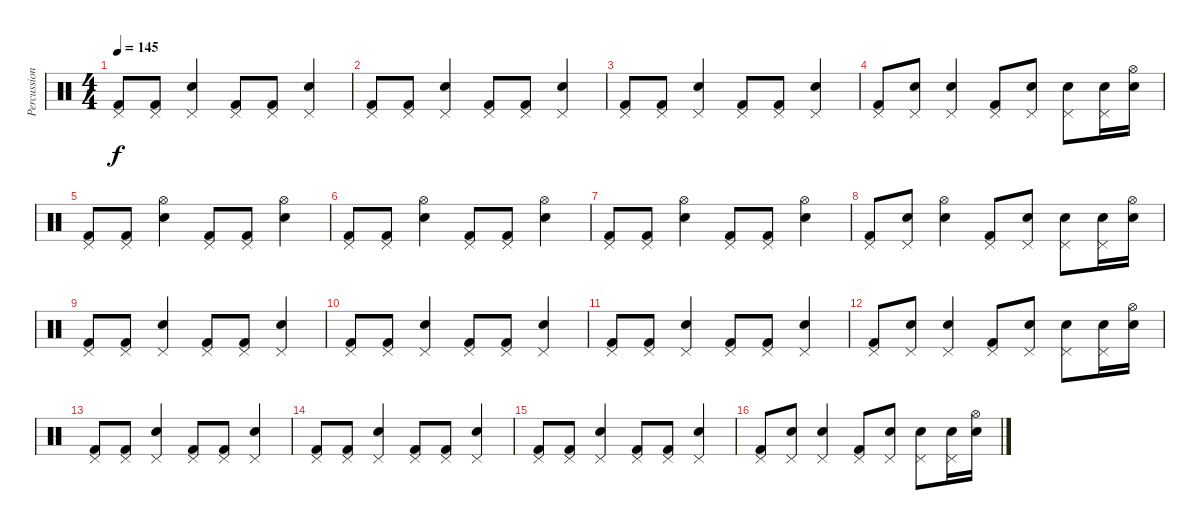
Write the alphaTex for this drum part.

\track ("Percussion" "Percussion") {instrument percussion}
\staff {score}
\articulation defaults
\ts (4 4)
\tempo 145
\clef neutral
\ks c
("Pedal Hi-Hat (hit)" "Kick (hit) 2").8{dy f} ("Pedal Hi-Hat (hit)" "Kick (hit) 2").8 ("Pedal Hi-Hat (hit)" "Snare (hit) 2").4 ("Pedal Hi-Hat (hit)" "Kick (hit) 2").8 ("Pedal Hi-Hat (hit)" "Kick (hit) 2").8 ("Pedal Hi-Hat (hit)" "Snare (hit) 2").4 |
("Pedal Hi-Hat (hit)" "Kick (hit) 2").8 ("Pedal Hi-Hat (hit)" "Kick (hit) 2").8 ("Pedal Hi-Hat (hit)" "Snare (hit) 2").4 ("Pedal Hi-Hat (hit)" "Kick (hit) 2").8 ("Pedal Hi-Hat (hit)" "Kick (hit) 2").8 ("Pedal Hi-Hat (hit)" "Snare (hit) 2").4 |
("Pedal Hi-Hat (hit)" "Kick (hit) 2").8 ("Pedal Hi-Hat (hit)" "Kick (hit) 2").8 ("Pedal Hi-Hat (hit)" "Snare (hit) 2").4 ("Pedal Hi-Hat (hit)" "Kick (hit) 2").8 ("Pedal Hi-Hat (hit)" "Kick (hit) 2").8 ("Pedal Hi-Hat (hit)" "Snare (hit) 2").4 |
("Pedal Hi-Hat (hit)" "Kick (hit) 2").8 ("Pedal Hi-Hat (hit)" "Snare (hit) 2").8 ("Pedal Hi-Hat (hit)" "Snare (hit) 2").4 ("Pedal Hi-Hat (hit)" "Kick (hit) 2").8 ("Pedal Hi-Hat (hit)" "Snare (hit) 2").8 ("Pedal Hi-Hat (hit)" "Snare (hit) 2").8 ("Pedal Hi-Hat (hit)" "Snare (hit) 2").16 ("Hi-Hat (open)" "Snare (hit) 2").16 |
("Pedal Hi-Hat (hit)" "Kick (hit) 2").8 ("Pedal Hi-Hat (hit)" "Kick (hit) 2").8 ("Hi-Hat (open)" "Snare (hit) 2").4 ("Pedal Hi-Hat (hit)" "Kick (hit) 2").8 ("Pedal Hi-Hat (hit)" "Kick (hit) 2").8 ("Hi-Hat (open)" "Snare (hit) 2").4 |
("Pedal Hi-Hat (hit)" "Kick (hit) 2").8 ("Pedal Hi-Hat (hit)" "Kick (hit) 2").8 ("Hi-Hat (open)" "Snare (hit) 2").4 ("Pedal Hi-Hat (hit)" "Kick (hit) 2").8 ("Pedal Hi-Hat (hit)" "Kick (hit) 2").8 ("Hi-Hat (open)" "Snare (hit) 2").4 |
("Pedal Hi-Hat (hit)" "Kick (hit) 2").8 ("Pedal Hi-Hat (hit)" "Kick (hit) 2").8 ("Hi-Hat (open)" "Snare (hit) 2").4 ("Pedal Hi-Hat (hit)" "Kick (hit) 2").8 ("Pedal Hi-Hat (hit)" "Kick (hit) 2").8 ("Hi-Hat (open)" "Snare (hit) 2").4 |
("Pedal Hi-Hat (hit)" "Kick (hit) 2").8 ("Pedal Hi-Hat (hit)" "Snare (hit) 2").8 ("Hi-Hat (open)" "Snare (hit) 2").4 ("Pedal Hi-Hat (hit)" "Kick (hit) 2").8 ("Pedal Hi-Hat (hit)" "Snare (hit) 2").8 ("Pedal Hi-Hat (hit)" "Snare (hit) 2").8 ("Pedal Hi-Hat (hit)" "Snare (hit) 2").16 ("Hi-Hat (open)" "Snare (hit) 2").16 |
("Pedal Hi-Hat (hit)" "Kick (hit) 2").8 ("Pedal Hi-Hat (hit)" "Kick (hit) 2").8 ("Pedal Hi-Hat (hit)" "Snare (hit) 2").4 ("Pedal Hi-Hat (hit)" "Kick (hit) 2").8 ("Pedal Hi-Hat (hit)" "Kick (hit) 2").8 ("Pedal Hi-Hat (hit)" "Snare (hit) 2").4 |
("Pedal Hi-Hat (hit)" "Kick (hit) 2").8 ("Pedal Hi-Hat (hit)" "Kick (hit) 2").8 ("Pedal Hi-Hat (hit)" "Snare (hit) 2").4 ("Pedal Hi-Hat (hit)" "Kick (hit) 2").8 ("Pedal Hi-Hat (hit)" "Kick (hit) 2").8 ("Pedal Hi-Hat (hit)" "Snare (hit) 2").4 |
("Pedal Hi-Hat (hit)" "Kick (hit) 2").8 ("Pedal Hi-Hat (hit)" "Kick (hit) 2").8 ("Pedal Hi-Hat (hit)" "Snare (hit) 2").4 ("Pedal Hi-Hat (hit)" "Kick (hit) 2").8 ("Pedal Hi-Hat (hit)" "Kick (hit) 2").8 ("Pedal Hi-Hat (hit)" "Snare (hit) 2").4 |
("Pedal Hi-Hat (hit)" "Kick (hit) 2").8 ("Pedal Hi-Hat (hit)" "Snare (hit) 2").8 ("Pedal Hi-Hat (hit)" "Snare (hit) 2").4 ("Pedal Hi-Hat (hit)" "Kick (hit) 2").8 ("Pedal Hi-Hat (hit)" "Snare (hit) 2").8 ("Pedal Hi-Hat (hit)" "Snare (hit) 2").8 ("Pedal Hi-Hat (hit)" "Snare (hit) 2").16 ("Hi-Hat (open)" "Snare (hit) 2").16 |
("Pedal Hi-Hat (hit)" "Kick (hit) 2").8 ("Pedal Hi-Hat (hit)" "Kick (hit) 2").8 ("Pedal Hi-Hat (hit)" "Snare (hit) 2").4 ("Pedal Hi-Hat (hit)" "Kick (hit) 2").8 ("Pedal Hi-Hat (hit)" "Kick (hit) 2").8 ("Pedal Hi-Hat (hit)" "Snare (hit) 2").4 |
("Pedal Hi-Hat (hit)" "Kick (hit) 2").8 ("Pedal Hi-Hat (hit)" "Kick (hit) 2").8 ("Pedal Hi-Hat (hit)" "Snare (hit) 2").4 ("Pedal Hi-Hat (hit)" "Kick (hit) 2").8 ("Pedal Hi-Hat (hit)" "Kick (hit) 2").8 ("Pedal Hi-Hat (hit)" "Snare (hit) 2").4 |
("Pedal Hi-Hat (hit)" "Kick (hit) 2").8 ("Pedal Hi-Hat (hit)" "Kick (hit) 2").8 ("Pedal Hi-Hat (hit)" "Snare (hit) 2").4 ("Pedal Hi-Hat (hit)" "Kick (hit) 2").8 ("Pedal Hi-Hat (hit)" "Kick (hit) 2").8 ("Pedal Hi-Hat (hit)" "Snare (hit) 2").4 |
("Pedal Hi-Hat (hit)" "Kick (hit) 2").8 ("Pedal Hi-Hat (hit)" "Snare (hit) 2").8 ("Pedal Hi-Hat (hit)" "Snare (hit) 2").4 ("Pedal Hi-Hat (hit)" "Kick (hit) 2").8 ("Pedal Hi-Hat (hit)" "Snare (hit) 2").8 ("Pedal Hi-Hat (hit)" "Snare (hit) 2").8 ("Pedal Hi-Hat (hit)" "Snare (hit) 2").16 ("Hi-Hat (open)" "Snare (hit) 2").16
